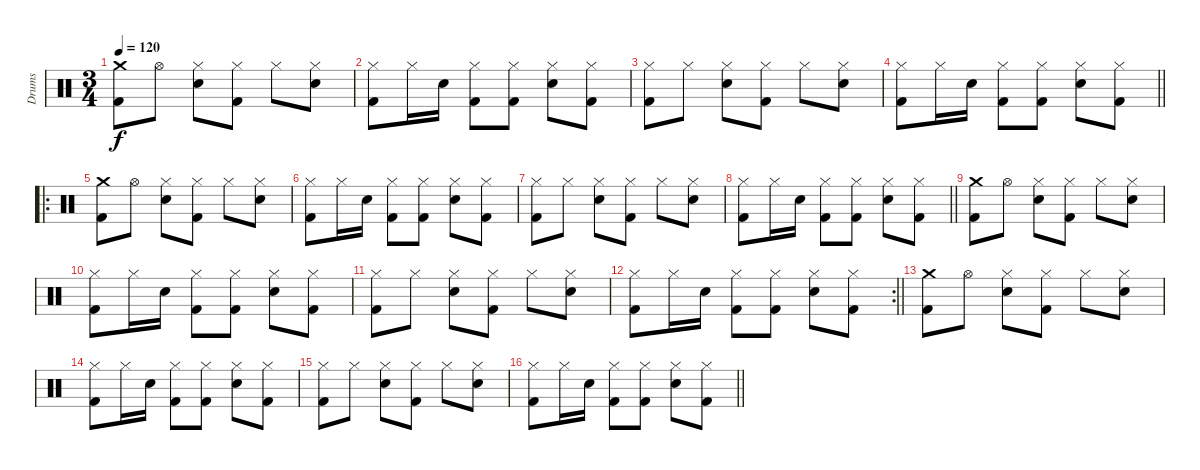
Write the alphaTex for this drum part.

\track ("Drums" "Drums") {instrument percussion}
\staff {score}
\articulation defaults
\ts (3 4)
\tempo 120
\clef neutral
\ks c
("Kick (hit) 2" "Crash medium (hit)").8{dy f} "Hi-Hat (open)".8 ("Electric Snare (hit)" "Hi-Hat (closed)").8 ("Kick (hit) 2" "Hi-Hat (closed)").8 "Hi-Hat (closed)".8 ("Electric Snare (hit)" "Hi-Hat (closed)").8 |
("Kick (hit) 2" "Hi-Hat (closed)").8 "Hi-Hat (closed)".16 "Electric Snare (hit)".16 ("Kick (hit) 2" "Hi-Hat (closed)").8 ("Kick (hit) 2" "Hi-Hat (closed)").8 ("Electric Snare (hit)" "Hi-Hat (closed)").8 ("Kick (hit) 2" "Hi-Hat (closed)").8 |
("Kick (hit) 2" "Hi-Hat (closed)").8 "Hi-Hat (closed)".8 ("Electric Snare (hit)" "Hi-Hat (closed)").8 ("Kick (hit) 2" "Hi-Hat (closed)").8 "Hi-Hat (closed)".8 ("Electric Snare (hit)" "Hi-Hat (closed)").8 |
\barLineRight lightlight
("Kick (hit) 2" "Hi-Hat (closed)").8 "Hi-Hat (closed)".16 "Electric Snare (hit)".16 ("Kick (hit) 2" "Hi-Hat (closed)").8 ("Kick (hit) 2" "Hi-Hat (closed)").8 ("Electric Snare (hit)" "Hi-Hat (closed)").8 ("Kick (hit) 2" "Hi-Hat (closed)").8 |
\ro
("Kick (hit) 2" "Crash medium (hit)").8 "Hi-Hat (open)".8 ("Electric Snare (hit)" "Hi-Hat (closed)").8 ("Kick (hit) 2" "Hi-Hat (closed)").8 "Hi-Hat (closed)".8 ("Electric Snare (hit)" "Hi-Hat (closed)").8 |
("Kick (hit) 2" "Hi-Hat (closed)").8 "Hi-Hat (closed)".16 "Electric Snare (hit)".16 ("Kick (hit) 2" "Hi-Hat (closed)").8 ("Kick (hit) 2" "Hi-Hat (closed)").8 ("Electric Snare (hit)" "Hi-Hat (closed)").8 ("Kick (hit) 2" "Hi-Hat (closed)").8 |
("Kick (hit) 2" "Hi-Hat (closed)").8 "Hi-Hat (closed)".8 ("Electric Snare (hit)" "Hi-Hat (closed)").8 ("Kick (hit) 2" "Hi-Hat (closed)").8 "Hi-Hat (closed)".8 ("Electric Snare (hit)" "Hi-Hat (closed)").8 |
\barLineRight lightlight
("Kick (hit) 2" "Hi-Hat (closed)").8 "Hi-Hat (closed)".16 "Electric Snare (hit)".16 ("Kick (hit) 2" "Hi-Hat (closed)").8 ("Kick (hit) 2" "Hi-Hat (closed)").8 ("Electric Snare (hit)" "Hi-Hat (closed)").8 ("Kick (hit) 2" "Hi-Hat (closed)").8 |
("Kick (hit) 2" "Crash medium (hit)").8 "Hi-Hat (open)".8 ("Electric Snare (hit)" "Hi-Hat (closed)").8 ("Kick (hit) 2" "Hi-Hat (closed)").8 "Hi-Hat (closed)".8 ("Electric Snare (hit)" "Hi-Hat (closed)").8 |
("Kick (hit) 2" "Hi-Hat (closed)").8 "Hi-Hat (closed)".16 "Electric Snare (hit)".16 ("Kick (hit) 2" "Hi-Hat (closed)").8 ("Kick (hit) 2" "Hi-Hat (closed)").8 ("Electric Snare (hit)" "Hi-Hat (closed)").8 ("Kick (hit) 2" "Hi-Hat (closed)").8 |
("Kick (hit) 2" "Hi-Hat (closed)").8 "Hi-Hat (closed)".8 ("Electric Snare (hit)" "Hi-Hat (closed)").8 ("Kick (hit) 2" "Hi-Hat (closed)").8 "Hi-Hat (closed)".8 ("Electric Snare (hit)" "Hi-Hat (closed)").8 |
\rc 2
\barLineRight lightlight
("Kick (hit) 2" "Hi-Hat (closed)").8 "Hi-Hat (closed)".16 "Electric Snare (hit)".16 ("Kick (hit) 2" "Hi-Hat (closed)").8 ("Kick (hit) 2" "Hi-Hat (closed)").8 ("Electric Snare (hit)" "Hi-Hat (closed)").8 ("Kick (hit) 2" "Hi-Hat (closed)").8 |
("Kick (hit) 2" "Crash medium (hit)").8 "Hi-Hat (open)".8 ("Electric Snare (hit)" "Hi-Hat (closed)").8 ("Kick (hit) 2" "Hi-Hat (closed)").8 "Hi-Hat (closed)".8 ("Electric Snare (hit)" "Hi-Hat (closed)").8 |
("Kick (hit) 2" "Hi-Hat (closed)").8 "Hi-Hat (closed)".16 "Electric Snare (hit)".16 ("Kick (hit) 2" "Hi-Hat (closed)").8 ("Kick (hit) 2" "Hi-Hat (closed)").8 ("Electric Snare (hit)" "Hi-Hat (closed)").8 ("Kick (hit) 2" "Hi-Hat (closed)").8 |
("Kick (hit) 2" "Hi-Hat (closed)").8 "Hi-Hat (closed)".8 ("Electric Snare (hit)" "Hi-Hat (closed)").8 ("Kick (hit) 2" "Hi-Hat (closed)").8 "Hi-Hat (closed)".8 ("Electric Snare (hit)" "Hi-Hat (closed)").8 |
\barLineRight lightlight
("Kick (hit) 2" "Hi-Hat (closed)").8 "Hi-Hat (closed)".16 "Electric Snare (hit)".16 ("Kick (hit) 2" "Hi-Hat (closed)").8 ("Kick (hit) 2" "Hi-Hat (closed)").8 ("Electric Snare (hit)" "Hi-Hat (closed)").8 ("Kick (hit) 2" "Hi-Hat (closed)").8
